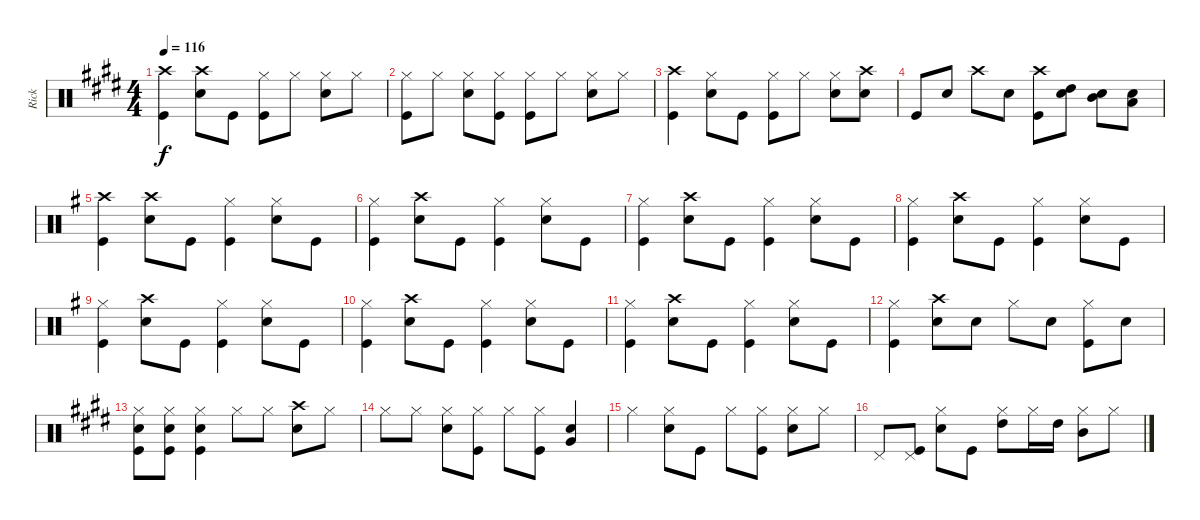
\track ("Rick" "Rick") {instrument percussion}
\staff {score}
\articulation defaults
\ts (4 4)
\tempo 116
\clef neutral
\ks e
("Crash high (hit)" "Kick (hit)").4{dy f} ("Crash high (hit)" "Snare (hit) 2").8 "Kick (hit)".8 ("Hi-Hat (closed)" "Kick (hit)").8 "Hi-Hat (closed)".8 ("Hi-Hat (closed)" "Snare (hit) 2").8 "Hi-Hat (closed)".8 |
("Hi-Hat (closed)" "Kick (hit)").8 "Hi-Hat (closed)".8 ("Hi-Hat (closed)" "Snare (hit) 2").8 ("Hi-Hat (closed)" "Kick (hit)").8 ("Hi-Hat (closed)" "Kick (hit)").8 "Hi-Hat (closed)".8 ("Hi-Hat (closed)" "Snare (hit) 2").8 "Hi-Hat (closed)".8 |
("Crash high (hit)" "Kick (hit)").4 ("Hi-Hat (closed)" "Snare (hit) 2").8 "Kick (hit)".8 ("Hi-Hat (closed)" "Kick (hit)").8 "Hi-Hat (closed)".8 ("Hi-Hat (closed)" "Snare (hit) 2").8 ("Crash high (hit)" "Snare (hit) 2").8 |
"Kick (hit)".8 "Snare (hit) 2".8 "Crash high (hit)".8 "Snare (hit) 2".8 ("Crash high (hit)" "Kick (hit)").8 ("High Tom (hit)" "Snare (hit) 2").8 ("Mid Tom (hit)" "Snare (hit) 2").8 ("Low Tom (hit)" "Snare (hit) 2").8 |
\ks g
("Crash high (hit)" "Kick (hit)").4 ("Crash high (hit)" "Snare (hit) 2").8 "Kick (hit)".8 ("Hi-Hat (closed)" "Kick (hit)").4 ("Hi-Hat (closed)" "Snare (hit) 2").8 "Kick (hit)".8 |
("Hi-Hat (closed)" "Kick (hit)").4 ("Crash high (hit)" "Snare (hit) 2").8 "Kick (hit)".8 ("Hi-Hat (closed)" "Kick (hit)").4 ("Hi-Hat (closed)" "Snare (hit) 2").8 "Kick (hit)".8 |
("Hi-Hat (closed)" "Kick (hit)").4 ("Crash high (hit)" "Snare (hit) 2").8 "Kick (hit)".8 ("Hi-Hat (closed)" "Kick (hit)").4 ("Hi-Hat (closed)" "Snare (hit) 2").8 "Kick (hit)".8 |
("Hi-Hat (closed)" "Kick (hit)").4 ("Crash high (hit)" "Snare (hit) 2").8 "Kick (hit)".8 ("Hi-Hat (closed)" "Kick (hit)").4 ("Hi-Hat (closed)" "Snare (hit) 2").8 "Kick (hit)".8 |
("Hi-Hat (closed)" "Kick (hit)").4 ("Crash high (hit)" "Snare (hit) 2").8 "Kick (hit)".8 ("Hi-Hat (closed)" "Kick (hit)").4 ("Hi-Hat (closed)" "Snare (hit) 2").8 "Kick (hit)".8 |
("Hi-Hat (closed)" "Kick (hit)").4 ("Crash high (hit)" "Snare (hit) 2").8 "Kick (hit)".8 ("Hi-Hat (closed)" "Kick (hit)").4 ("Hi-Hat (closed)" "Snare (hit) 2").8 "Kick (hit)".8 |
("Hi-Hat (closed)" "Kick (hit)").4 ("Crash high (hit)" "Snare (hit) 2").8 "Kick (hit)".8 ("Hi-Hat (closed)" "Kick (hit)").4 ("Hi-Hat (closed)" "Snare (hit) 2").8 "Kick (hit)".8 |
("Hi-Hat (closed)" "Kick (hit)").4 ("Crash high (hit)" "Snare (hit) 2").8 "Snare (hit) 2".8 "Hi-Hat (closed)".8 "Snare (hit) 2".8 ("Hi-Hat (closed)" "Kick (hit)").8 "Snare (hit) 2".8 |
\ks e
("Hi-Hat (closed)" "Snare (hit) 2" "Kick (hit)").8 ("Hi-Hat (closed)" "Snare (hit) 2" "Kick (hit)").8 ("Hi-Hat (closed)" "Snare (hit) 2" "Kick (hit)").4 "Hi-Hat (closed)".8 "Hi-Hat (closed)".8 ("Crash high (hit)" "Snare (hit) 2").8 "Hi-Hat (closed)".8 |
"Hi-Hat (closed)".8 "Hi-Hat (closed)".8 ("Hi-Hat (closed)" "Snare (hit) 2").8 ("Hi-Hat (closed)" "Kick (hit)").8 "Hi-Hat (closed)".8 ("Hi-Hat (closed)" "Kick (hit)").8 ("Snare (hit) 2" "Very Low Tom (hit)").4 |
"Hi-Hat (closed)".4 ("Hi-Hat (closed)" "Snare (hit) 2").8 "Kick (hit)".8 "Hi-Hat (closed)".8 ("Hi-Hat (closed)" "Kick (hit)").8 ("Hi-Hat (closed)" "Snare (hit) 2").8 "Hi-Hat (closed)".8 |
"Pedal Hi-Hat (hit)".8 ("Pedal Hi-Hat (hit)" "Kick (hit)").8 ("Hi-Hat (closed)" "Snare (hit) 2").8 "Kick (hit)".8 ("Hi-Hat (closed)" "High Tom (hit)").8 "Hi-Hat (closed)".16 "High Tom (hit)".16 ("Hi-Hat (closed)" "Mid Tom (hit)").8 "Hi-Hat (closed)".8
